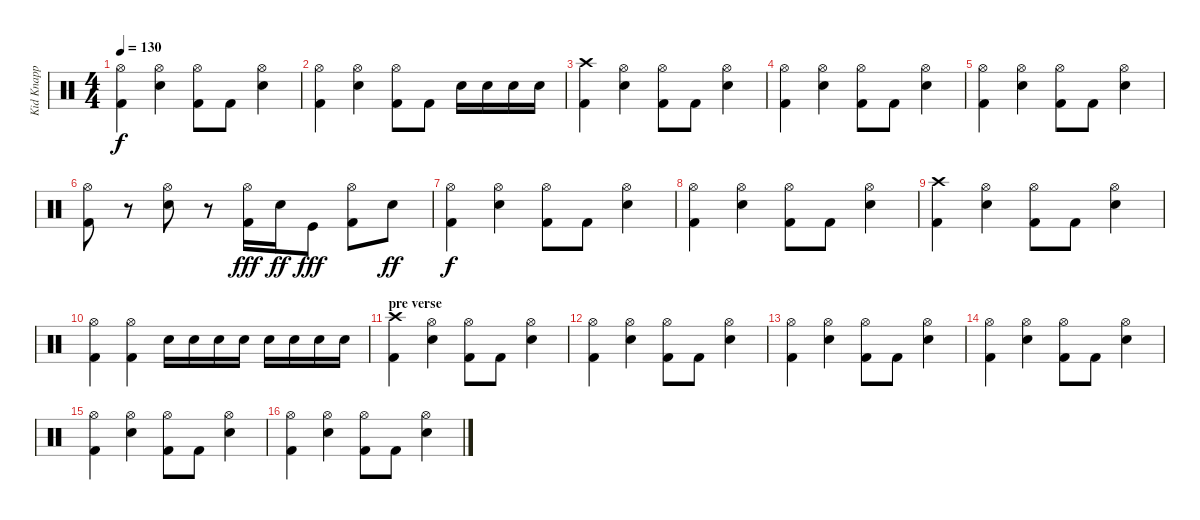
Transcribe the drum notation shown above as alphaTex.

\track ("Kid Knapp (Drums)" "Kid Knapp ") {instrument percussion}
\staff {score}
\articulation defaults
\ts (4 4)
\tempo 130
\clef neutral
\ks c
("Hi-Hat (open)" "Kick (hit) 2").4{dy f} ("Hi-Hat (open)" "Electric Snare (hit)").4 ("Hi-Hat (open)" "Kick (hit) 2").8 "Kick (hit) 2".8 ("Hi-Hat (open)" "Electric Snare (hit)").4 |
("Hi-Hat (open)" "Kick (hit) 2").4 ("Hi-Hat (open)" "Electric Snare (hit)").4 ("Hi-Hat (open)" "Kick (hit) 2").8 "Kick (hit) 2".8 "Electric Snare (hit)".16 "Electric Snare (hit)".16 "Electric Snare (hit)".16 "Electric Snare (hit)".16 |
("Crash high (hit)" "Kick (hit) 2").4 ("Hi-Hat (open)" "Electric Snare (hit)").4 ("Hi-Hat (open)" "Kick (hit) 2").8 "Kick (hit) 2".8 ("Hi-Hat (open)" "Electric Snare (hit)").4 |
("Hi-Hat (open)" "Kick (hit) 2").4 ("Hi-Hat (open)" "Electric Snare (hit)").4 ("Hi-Hat (open)" "Kick (hit) 2").8 "Kick (hit) 2".8 ("Hi-Hat (open)" "Electric Snare (hit)").4 |
("Hi-Hat (open)" "Kick (hit) 2").4 ("Hi-Hat (open)" "Electric Snare (hit)").4 ("Hi-Hat (open)" "Kick (hit) 2").8 "Kick (hit) 2".8 ("Hi-Hat (open)" "Electric Snare (hit)").4 |
("Hi-Hat (open)" "Kick (hit) 2").8 r.8 ("Hi-Hat (open)" "Electric Snare (hit)").8 r.8 ("Hi-Hat (open)" "Kick (hit) 2").16{dy fff} "Electric Snare (hit)".16{dy ff} "Kick (hit)".8{dy fff} ("Hi-Hat (open)" "Kick (hit) 2").8 "Electric Snare (hit)".8{dy ff} |
("Hi-Hat (open)" "Kick (hit) 2").4{dy f} ("Hi-Hat (open)" "Electric Snare (hit)").4 ("Hi-Hat (open)" "Kick (hit) 2").8 "Kick (hit) 2".8 ("Hi-Hat (open)" "Electric Snare (hit)").4 |
("Hi-Hat (open)" "Kick (hit) 2").4 ("Hi-Hat (open)" "Electric Snare (hit)").4 ("Hi-Hat (open)" "Kick (hit) 2").8 "Kick (hit) 2".8 ("Hi-Hat (open)" "Electric Snare (hit)").4 |
("Crash high (hit)" "Kick (hit) 2").4 ("Hi-Hat (open)" "Electric Snare (hit)").4 ("Hi-Hat (open)" "Kick (hit) 2").8 "Kick (hit) 2".8 ("Hi-Hat (open)" "Electric Snare (hit)").4 |
("Hi-Hat (open)" "Kick (hit) 2").4 ("Hi-Hat (open)" "Kick (hit) 2").4 "Electric Snare (hit)".16 "Electric Snare (hit)".16 "Electric Snare (hit)".16 "Electric Snare (hit)".16 "Electric Snare (hit)".16 "Electric Snare (hit)".16 "Electric Snare (hit)".16 "Electric Snare (hit)".16 |
\section ("" "pre verse")
("Crash high (hit)" "Kick (hit) 2").4 ("Hi-Hat (open)" "Electric Snare (hit)").4 ("Hi-Hat (open)" "Kick (hit) 2").8 "Kick (hit) 2".8 ("Hi-Hat (open)" "Electric Snare (hit)").4 |
("Hi-Hat (open)" "Kick (hit) 2").4 ("Hi-Hat (open)" "Electric Snare (hit)").4 ("Hi-Hat (open)" "Kick (hit) 2").8 "Kick (hit) 2".8 ("Hi-Hat (open)" "Electric Snare (hit)").4 |
("Hi-Hat (open)" "Kick (hit) 2").4 ("Hi-Hat (open)" "Electric Snare (hit)").4 ("Hi-Hat (open)" "Kick (hit) 2").8 "Kick (hit) 2".8 ("Hi-Hat (open)" "Electric Snare (hit)").4 |
("Hi-Hat (open)" "Kick (hit) 2").4 ("Hi-Hat (open)" "Electric Snare (hit)").4 ("Hi-Hat (open)" "Kick (hit) 2").8 "Kick (hit) 2".8 ("Hi-Hat (open)" "Electric Snare (hit)").4 |
("Hi-Hat (open)" "Kick (hit) 2").4 ("Hi-Hat (open)" "Electric Snare (hit)").4 ("Hi-Hat (open)" "Kick (hit) 2").8 "Kick (hit) 2".8 ("Hi-Hat (open)" "Electric Snare (hit)").4 |
("Hi-Hat (open)" "Kick (hit) 2").4 ("Hi-Hat (open)" "Electric Snare (hit)").4 ("Hi-Hat (open)" "Kick (hit) 2").8 "Kick (hit) 2".8 ("Hi-Hat (open)" "Electric Snare (hit)").4
